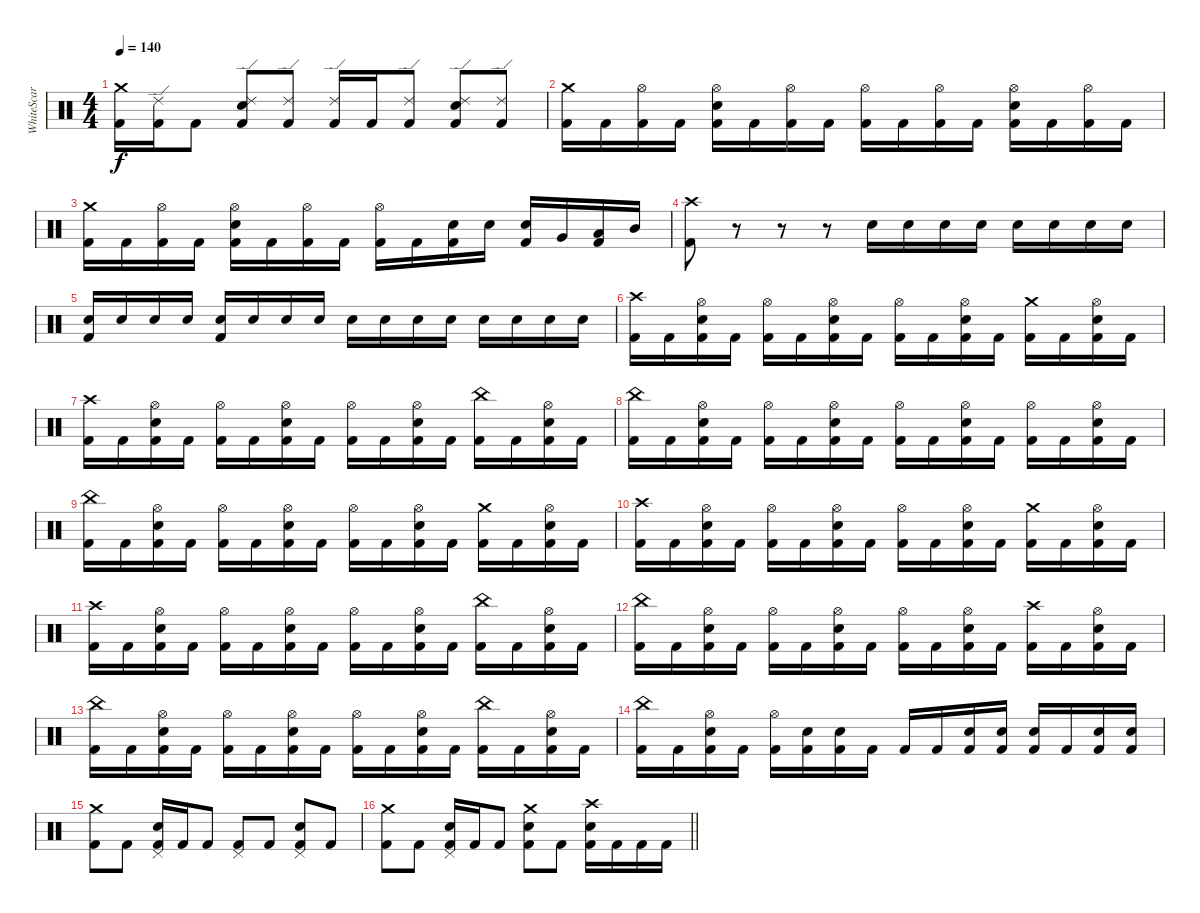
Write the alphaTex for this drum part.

\track ("WhiteScar " "WhiteScar ") {instrument percussion}
\staff {score}
\articulation defaults
\ts (4 4)
\tempo 140
\clef neutral
\ks c
("Crash medium (hit)" "Kick (hit) 2").16{dy f} ("Ride (edge) 2" "Kick (hit) 2").16 "Kick (hit) 2".8 ("Snare (hit) 2" "Ride (edge) 2" "Kick (hit) 2").8 ("Ride (edge) 2" "Kick (hit) 2").8 ("Ride (edge) 2" "Kick (hit) 2").16 "Kick (hit) 2".16 ("Ride (edge) 2" "Kick (hit) 2").8 ("Snare (hit) 2" "Ride (edge) 2" "Kick (hit) 2").8 ("Ride (edge) 2" "Kick (hit) 2").8 |
("Crash medium (hit)" "Kick (hit) 2").16 "Kick (hit) 2".16 ("Hi-Hat (open)" "Kick (hit) 2").16 "Kick (hit) 2".16 ("Hi-Hat (open)" "Snare (hit) 2" "Kick (hit) 2").16 "Kick (hit) 2".16 ("Hi-Hat (open)" "Kick (hit) 2").16 "Kick (hit) 2".16 ("Hi-Hat (open)" "Kick (hit) 2").16 "Kick (hit) 2".16 ("Hi-Hat (open)" "Kick (hit) 2").16 "Kick (hit) 2".16 ("Hi-Hat (open)" "Snare (hit) 2" "Kick (hit) 2").16 "Kick (hit) 2".16 ("Hi-Hat (open)" "Kick (hit) 2").16 "Kick (hit) 2".16 |
("Crash medium (hit)" "Kick (hit) 2").16 "Kick (hit) 2".16 ("Hi-Hat (open)" "Kick (hit) 2").16 "Kick (hit) 2".16 ("Hi-Hat (open)" "Snare (hit) 2" "Kick (hit) 2").16 "Kick (hit) 2".16 ("Hi-Hat (open)" "Kick (hit) 2").16 "Kick (hit) 2".16 ("Hi-Hat (open)" "Kick (hit) 2").16 "Kick (hit) 2".16 ("Snare (hit) 2" "Kick (hit) 2").16 "Snare (hit) 2".16 ("Snare (hit) 2" "Kick (hit) 2").16 "Very Low Tom (hit)".16 ("Low Tom (hit)" "Kick (hit) 2").16 "Mid Tom (hit)".16 |
("Crash high (hit)" "Kick (hit) 2").8 r.8 r.8 r.8 "Snare (hit) 2".16{volume 6} "Snare (hit) 2".16{volume 7} "Snare (hit) 2".16{volume 8} "Snare (hit) 2".16{volume 9} "Snare (hit) 2".16{volume 10} "Snare (hit) 2".16{volume 11} "Snare (hit) 2".16{volume 12} "Snare (hit) 2".16 |
("Snare (hit) 2" "Kick (hit) 2").16 "Snare (hit) 2".16 "Snare (hit) 2".16 "Snare (hit) 2".16 ("Snare (hit) 2" "Kick (hit) 2").16 "Snare (hit) 2".16 "Snare (hit) 2".16 "Snare (hit) 2".16 "Snare (hit) 2".16{volume 8} "Snare (hit) 2".16{volume 9} "Snare (hit) 2".16{volume 10} "Snare (hit) 2".16{volume 11} "Snare (hit) 2".16{volume 12} "Snare (hit) 2".16 "Snare (hit) 2".16 "Snare (hit) 2".16 |
("Crash high (hit)" "Kick (hit) 2").16 "Kick (hit) 2".16 ("Hi-Hat (open)" "Snare (hit) 2" "Kick (hit) 2").16 "Kick (hit) 2".16 ("Hi-Hat (open)" "Kick (hit) 2").16 "Kick (hit) 2".16 ("Hi-Hat (open)" "Snare (hit) 2" "Kick (hit) 2").16 "Kick (hit) 2".16 ("Hi-Hat (open)" "Kick (hit) 2").16 "Kick (hit) 2".16 ("Hi-Hat (open)" "Snare (hit) 2" "Kick (hit) 2").16 "Kick (hit) 2".16 ("Crash medium (hit)" "Kick (hit) 2").16 "Kick (hit) 2".16 ("Hi-Hat (open)" "Snare (hit) 2" "Kick (hit) 2").16 "Kick (hit) 2".16 |
("Crash high (hit)" "Kick (hit) 2").16 "Kick (hit) 2".16 ("Hi-Hat (open)" "Snare (hit) 2" "Kick (hit) 2").16 "Kick (hit) 2".16 ("Hi-Hat (open)" "Kick (hit) 2").16 "Kick (hit) 2".16 ("Hi-Hat (open)" "Snare (hit) 2" "Kick (hit) 2").16 "Kick (hit) 2".16 ("Hi-Hat (open)" "Kick (hit) 2").16 "Kick (hit) 2".16 ("Hi-Hat (open)" "Snare (hit) 2" "Kick (hit) 2").16 "Kick (hit) 2".16 ("China (hit)" "Kick (hit) 2").16 "Kick (hit) 2".16 ("Hi-Hat (open)" "Snare (hit) 2" "Kick (hit) 2").16 "Kick (hit) 2".16 |
("China (hit)" "Kick (hit) 2").16 "Kick (hit) 2".16 ("Hi-Hat (open)" "Snare (hit) 2" "Kick (hit) 2").16 "Kick (hit) 2".16 ("Hi-Hat (open)" "Kick (hit) 2").16 "Kick (hit) 2".16 ("Hi-Hat (open)" "Snare (hit) 2" "Kick (hit) 2").16 "Kick (hit) 2".16 ("Hi-Hat (open)" "Kick (hit) 2").16 "Kick (hit) 2".16 ("Hi-Hat (open)" "Snare (hit) 2" "Kick (hit) 2").16 "Kick (hit) 2".16 ("Hi-Hat (open)" "Kick (hit) 2").16 "Kick (hit) 2".16 ("Hi-Hat (open)" "Snare (hit) 2" "Kick (hit) 2").16 "Kick (hit) 2".16 |
("China (hit)" "Kick (hit) 2").16 "Kick (hit) 2".16 ("Hi-Hat (open)" "Snare (hit) 2" "Kick (hit) 2").16 "Kick (hit) 2".16 ("Hi-Hat (open)" "Kick (hit) 2").16 "Kick (hit) 2".16 ("Hi-Hat (open)" "Snare (hit) 2" "Kick (hit) 2").16 "Kick (hit) 2".16 ("Hi-Hat (open)" "Kick (hit) 2").16 "Kick (hit) 2".16 ("Hi-Hat (open)" "Snare (hit) 2" "Kick (hit) 2").16 "Kick (hit) 2".16 ("Crash medium (hit)" "Kick (hit) 2").16 "Kick (hit) 2".16 ("Hi-Hat (open)" "Snare (hit) 2" "Kick (hit) 2").16 "Kick (hit) 2".16 |
("Crash high (hit)" "Kick (hit) 2").16 "Kick (hit) 2".16 ("Hi-Hat (open)" "Snare (hit) 2" "Kick (hit) 2").16 "Kick (hit) 2".16 ("Hi-Hat (open)" "Kick (hit) 2").16 "Kick (hit) 2".16 ("Hi-Hat (open)" "Snare (hit) 2" "Kick (hit) 2").16 "Kick (hit) 2".16 ("Hi-Hat (open)" "Kick (hit) 2").16 "Kick (hit) 2".16 ("Hi-Hat (open)" "Snare (hit) 2" "Kick (hit) 2").16 "Kick (hit) 2".16 ("Crash medium (hit)" "Kick (hit) 2").16 "Kick (hit) 2".16 ("Hi-Hat (open)" "Snare (hit) 2" "Kick (hit) 2").16 "Kick (hit) 2".16 |
("Crash high (hit)" "Kick (hit) 2").16 "Kick (hit) 2".16 ("Hi-Hat (open)" "Snare (hit) 2" "Kick (hit) 2").16 "Kick (hit) 2".16 ("Hi-Hat (open)" "Kick (hit) 2").16 "Kick (hit) 2".16 ("Hi-Hat (open)" "Snare (hit) 2" "Kick (hit) 2").16 "Kick (hit) 2".16 ("Hi-Hat (open)" "Kick (hit) 2").16 "Kick (hit) 2".16 ("Hi-Hat (open)" "Snare (hit) 2" "Kick (hit) 2").16 "Kick (hit) 2".16 ("China (hit)" "Kick (hit) 2").16 "Kick (hit) 2".16 ("Hi-Hat (open)" "Snare (hit) 2" "Kick (hit) 2").16 "Kick (hit) 2".16 |
("China (hit)" "Kick (hit) 2").16 "Kick (hit) 2".16 ("Hi-Hat (open)" "Snare (hit) 2" "Kick (hit) 2").16 "Kick (hit) 2".16 ("Hi-Hat (open)" "Kick (hit) 2").16 "Kick (hit) 2".16 ("Hi-Hat (open)" "Snare (hit) 2" "Kick (hit) 2").16 "Kick (hit) 2".16 ("Hi-Hat (open)" "Kick (hit) 2").16 "Kick (hit) 2".16 ("Hi-Hat (open)" "Snare (hit) 2" "Kick (hit) 2").16 "Kick (hit) 2".16 ("Crash high (hit)" "Kick (hit) 2").16 "Kick (hit) 2".16 ("Hi-Hat (open)" "Snare (hit) 2" "Kick (hit) 2").16 "Kick (hit) 2".16 |
("China (hit)" "Kick (hit) 2").16 "Kick (hit) 2".16 ("Hi-Hat (open)" "Snare (hit) 2" "Kick (hit) 2").16 "Kick (hit) 2".16 ("Hi-Hat (open)" "Kick (hit) 2").16 "Kick (hit) 2".16 ("Hi-Hat (open)" "Snare (hit) 2" "Kick (hit) 2").16 "Kick (hit) 2".16 ("Hi-Hat (open)" "Kick (hit) 2").16 "Kick (hit) 2".16 ("Hi-Hat (open)" "Snare (hit) 2" "Kick (hit) 2").16 "Kick (hit) 2".16 ("China (hit)" "Kick (hit) 2").16 "Kick (hit) 2".16 ("Hi-Hat (open)" "Snare (hit) 2" "Kick (hit) 2").16 "Kick (hit) 2".16 |
("China (hit)" "Kick (hit) 2").16 "Kick (hit) 2".16 ("Hi-Hat (open)" "Snare (hit) 2" "Kick (hit) 2").16 "Kick (hit) 2".16 ("Hi-Hat (open)" "Kick (hit) 2").16 ("Snare (hit) 2" "Kick (hit) 2").16 ("Snare (hit) 2" "Kick (hit) 2").16 "Kick (hit) 2".16 "Kick (hit) 2".16 "Kick (hit) 2".16 ("Snare (hit) 2" "Kick (hit) 2").16 ("Snare (hit) 2" "Kick (hit) 2").16 ("Snare (hit) 2" "Kick (hit) 2").16 "Kick (hit) 2".16 ("Snare (hit) 2" "Kick (hit) 2").16 ("Snare (hit) 2" "Kick (hit) 2").16 |
("Crash medium (hit)" "Kick (hit) 2").8 "Kick (hit) 2".8 ("Pedal Hi-Hat (hit)" "Snare (hit) 2" "Kick (hit) 2").16 "Kick (hit) 2".16 "Kick (hit) 2".8 ("Pedal Hi-Hat (hit)" "Kick (hit) 2").8 "Kick (hit) 2".8 ("Pedal Hi-Hat (hit)" "Snare (hit) 2" "Kick (hit) 2").8 "Kick (hit) 2".8 |
\barLineRight lightlight
("Crash medium (hit)" "Kick (hit) 2").8 "Kick (hit) 2".8 ("Pedal Hi-Hat (hit)" "Snare (hit) 2" "Kick (hit) 2").16 "Kick (hit) 2".16 "Kick (hit) 2".8 ("Crash medium (hit)" "Snare (hit) 2" "Kick (hit) 2").8 "Kick (hit) 2".8 ("Crash high (hit)" "Snare (hit) 2" "Kick (hit) 2").16 "Kick (hit) 2".16 "Kick (hit) 2".16 "Kick (hit) 2".16
